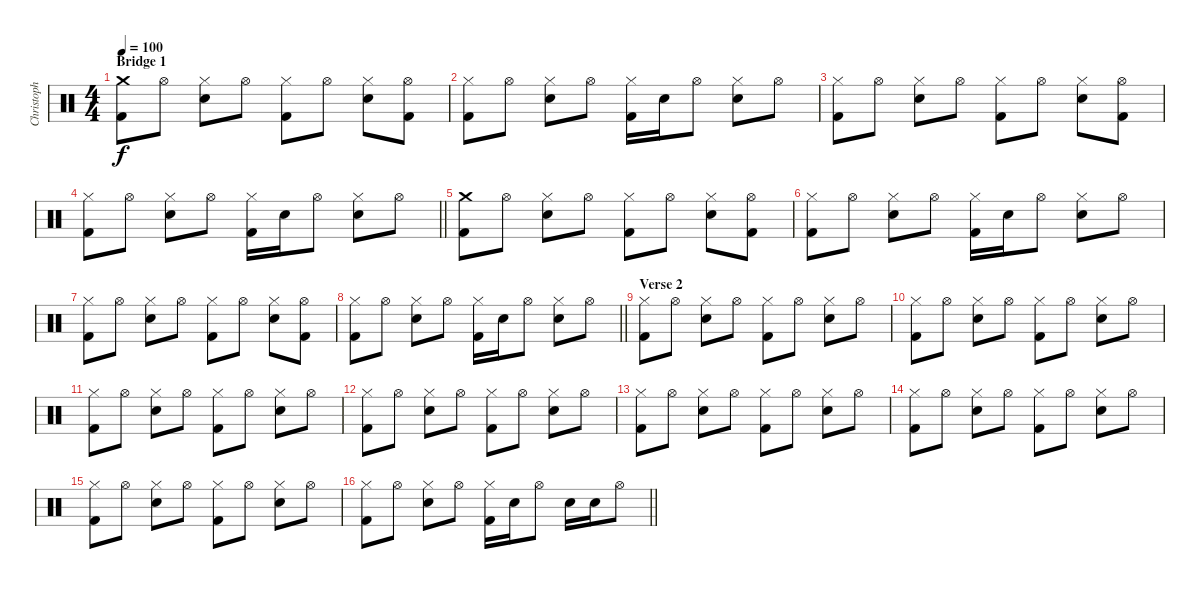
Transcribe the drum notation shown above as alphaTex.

\track ("Christoph - Drums" "Christoph ") {instrument percussion}
\staff {score}
\articulation defaults
\ts (4 4)
\section ("" "Bridge 1")
\tempo 100
\clef neutral
\ks c
("Crash medium (hit)" "Kick (hit) 2").8{dy f} "Hi-Hat (open)".8 ("Hi-Hat (closed)" "Snare (hit) 2").8 "Hi-Hat (open)".8 ("Hi-Hat (closed)" "Kick (hit) 2").8 "Hi-Hat (open)".8 ("Hi-Hat (closed)" "Snare (hit) 2").8 ("Hi-Hat (open)" "Kick (hit) 2").8 |
("Hi-Hat (closed)" "Kick (hit) 2").8 "Hi-Hat (open)".8 ("Hi-Hat (closed)" "Snare (hit) 2").8 "Hi-Hat (open)".8 ("Hi-Hat (closed)" "Kick (hit) 2").16 "Snare (hit) 2".16 "Hi-Hat (open)".8 ("Hi-Hat (closed)" "Snare (hit) 2").8 "Hi-Hat (open)".8 |
("Hi-Hat (closed)" "Kick (hit) 2").8 "Hi-Hat (open)".8 ("Hi-Hat (closed)" "Snare (hit) 2").8 "Hi-Hat (open)".8 ("Hi-Hat (closed)" "Kick (hit) 2").8 "Hi-Hat (open)".8 ("Hi-Hat (closed)" "Snare (hit) 2").8 ("Hi-Hat (open)" "Kick (hit) 2").8 |
\barLineRight lightlight
("Hi-Hat (closed)" "Kick (hit) 2").8 "Hi-Hat (open)".8 ("Hi-Hat (closed)" "Snare (hit) 2").8 "Hi-Hat (open)".8 ("Hi-Hat (closed)" "Kick (hit) 2").16 "Snare (hit) 2".16 "Hi-Hat (open)".8 ("Hi-Hat (closed)" "Snare (hit) 2").8 "Hi-Hat (open)".8 |
("Crash medium (hit)" "Kick (hit) 2").8 "Hi-Hat (open)".8 ("Hi-Hat (closed)" "Snare (hit) 2").8 "Hi-Hat (open)".8 ("Hi-Hat (closed)" "Kick (hit) 2").8 "Hi-Hat (open)".8 ("Hi-Hat (closed)" "Snare (hit) 2").8 ("Hi-Hat (open)" "Kick (hit) 2").8 |
("Hi-Hat (closed)" "Kick (hit) 2").8 "Hi-Hat (open)".8 ("Hi-Hat (closed)" "Snare (hit) 2").8 "Hi-Hat (open)".8 ("Hi-Hat (closed)" "Kick (hit) 2").16 "Snare (hit) 2".16 "Hi-Hat (open)".8 ("Hi-Hat (closed)" "Snare (hit) 2").8 "Hi-Hat (open)".8 |
("Hi-Hat (closed)" "Kick (hit) 2").8 "Hi-Hat (open)".8 ("Hi-Hat (closed)" "Snare (hit) 2").8 "Hi-Hat (open)".8 ("Hi-Hat (closed)" "Kick (hit) 2").8 "Hi-Hat (open)".8 ("Hi-Hat (closed)" "Snare (hit) 2").8 ("Hi-Hat (open)" "Kick (hit) 2").8 |
\barLineRight lightlight
("Hi-Hat (closed)" "Kick (hit) 2").8 "Hi-Hat (open)".8 ("Hi-Hat (closed)" "Snare (hit) 2").8 "Hi-Hat (open)".8 ("Hi-Hat (closed)" "Kick (hit) 2").16 "Snare (hit) 2".16 "Hi-Hat (open)".8 ("Hi-Hat (closed)" "Snare (hit) 2").8 "Hi-Hat (open)".8 |
\section ("" "Verse 2")
("Hi-Hat (closed)" "Kick (hit) 2").8 "Hi-Hat (open)".8 ("Hi-Hat (closed)" "Snare (hit) 2").8 "Hi-Hat (open)".8 ("Hi-Hat (closed)" "Kick (hit) 2").8 "Hi-Hat (open)".8 ("Hi-Hat (closed)" "Snare (hit) 2").8 "Hi-Hat (open)".8 |
("Hi-Hat (closed)" "Kick (hit) 2").8 "Hi-Hat (open)".8 ("Hi-Hat (closed)" "Snare (hit) 2").8 "Hi-Hat (open)".8 ("Hi-Hat (closed)" "Kick (hit) 2").8 "Hi-Hat (open)".8 ("Hi-Hat (closed)" "Snare (hit) 2").8 "Hi-Hat (open)".8 |
("Hi-Hat (closed)" "Kick (hit) 2").8 "Hi-Hat (open)".8 ("Hi-Hat (closed)" "Snare (hit) 2").8 "Hi-Hat (open)".8 ("Hi-Hat (closed)" "Kick (hit) 2").8 "Hi-Hat (open)".8 ("Hi-Hat (closed)" "Snare (hit) 2").8 "Hi-Hat (open)".8 |
("Hi-Hat (closed)" "Kick (hit) 2").8 "Hi-Hat (open)".8 ("Hi-Hat (closed)" "Snare (hit) 2").8 "Hi-Hat (open)".8 ("Hi-Hat (closed)" "Kick (hit) 2").8 "Hi-Hat (open)".8 ("Hi-Hat (closed)" "Snare (hit) 2").8 "Hi-Hat (open)".8 |
("Hi-Hat (closed)" "Kick (hit) 2").8 "Hi-Hat (open)".8 ("Hi-Hat (closed)" "Snare (hit) 2").8 "Hi-Hat (open)".8 ("Hi-Hat (closed)" "Kick (hit) 2").8 "Hi-Hat (open)".8 ("Hi-Hat (closed)" "Snare (hit) 2").8 "Hi-Hat (open)".8 |
("Hi-Hat (closed)" "Kick (hit) 2").8 "Hi-Hat (open)".8 ("Hi-Hat (closed)" "Snare (hit) 2").8 "Hi-Hat (open)".8 ("Hi-Hat (closed)" "Kick (hit) 2").8 "Hi-Hat (open)".8 ("Hi-Hat (closed)" "Snare (hit) 2").8 "Hi-Hat (open)".8 |
("Hi-Hat (closed)" "Kick (hit) 2").8 "Hi-Hat (open)".8 ("Hi-Hat (closed)" "Snare (hit) 2").8 "Hi-Hat (open)".8 ("Hi-Hat (closed)" "Kick (hit) 2").8 "Hi-Hat (open)".8 ("Hi-Hat (closed)" "Snare (hit) 2").8 "Hi-Hat (open)".8 |
\barLineRight lightlight
("Hi-Hat (closed)" "Kick (hit) 2").8 "Hi-Hat (open)".8 ("Hi-Hat (closed)" "Snare (hit) 2").8 "Hi-Hat (open)".8 ("Hi-Hat (closed)" "Kick (hit) 2").16 "Snare (hit) 2".16 "Hi-Hat (open)".8 "Snare (hit) 2".16 "Snare (hit) 2".16 "Hi-Hat (open)".8
